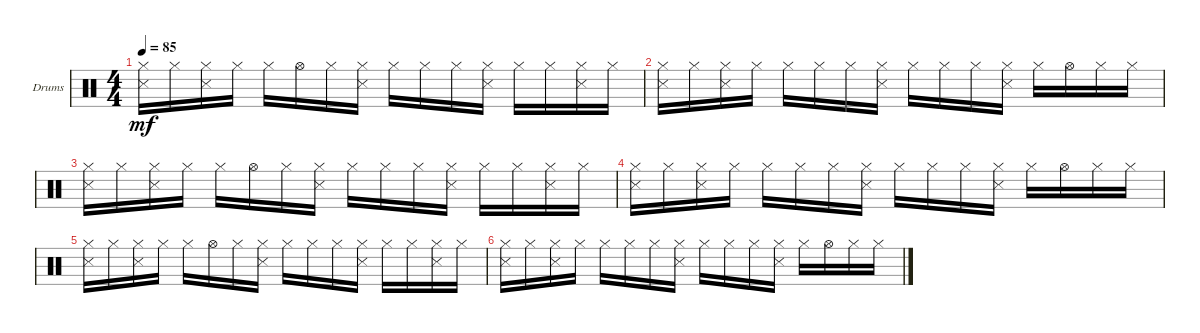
\defaultSystemsLayout 4
\bracketExtendMode groupsimilarinstruments
\firstSystemTrackNameOrientation horizontal
\otherSystemsTrackNameOrientation horizontal
\track ("Drumkit" "Drums") {instrument percussion}
\staff {score}
\articulation defaults
\ts (4 4)
\tempo 85
\clef neutral
\ks c
("Hi-Hat (closed)" "Snare (side stick) 3").16{dy mf} "Hi-Hat (closed)".16 ("Hi-Hat (closed)" "Snare (side stick) 3").16 "Hi-Hat (closed)".16 "Hi-Hat (closed)".16 "Hi-Hat (open)".16 "Hi-Hat (closed)".16 ("Hi-Hat (closed)" "Snare (side stick) 3").16 "Hi-Hat (closed)".16 "Hi-Hat (closed)".16 "Hi-Hat (closed)".16 ("Hi-Hat (closed)" "Snare (side stick) 3").16 "Hi-Hat (closed)".16 "Hi-Hat (closed)".16 ("Hi-Hat (closed)" "Snare (side stick) 3").16 "Hi-Hat (closed)".16 |
("Hi-Hat (closed)" "Snare (side stick) 3").16 "Hi-Hat (closed)".16 ("Hi-Hat (closed)" "Snare (side stick) 3").16 "Hi-Hat (closed)".16 "Hi-Hat (closed)".16 "Hi-Hat (closed)".16 "Hi-Hat (closed)".16 ("Hi-Hat (closed)" "Snare (side stick) 3").16 "Hi-Hat (closed)".16 "Hi-Hat (closed)".16 "Hi-Hat (closed)".16 ("Hi-Hat (closed)" "Snare (side stick) 3").16 "Hi-Hat (closed)".16 "Hi-Hat (open)".16 "Hi-Hat (closed)".16 "Hi-Hat (closed)".16 |
("Hi-Hat (closed)" "Snare (side stick) 3").16 "Hi-Hat (closed)".16 ("Hi-Hat (closed)" "Snare (side stick) 3").16 "Hi-Hat (closed)".16 "Hi-Hat (closed)".16 "Hi-Hat (open)".16 "Hi-Hat (closed)".16 ("Hi-Hat (closed)" "Snare (side stick) 3").16 "Hi-Hat (closed)".16 "Hi-Hat (closed)".16 "Hi-Hat (closed)".16 ("Hi-Hat (closed)" "Snare (side stick) 3").16 "Hi-Hat (closed)".16 "Hi-Hat (closed)".16 ("Hi-Hat (closed)" "Snare (side stick) 3").16 "Hi-Hat (closed)".16 |
("Hi-Hat (closed)" "Snare (side stick) 3").16 "Hi-Hat (closed)".16 ("Hi-Hat (closed)" "Snare (side stick) 3").16 "Hi-Hat (closed)".16 "Hi-Hat (closed)".16 "Hi-Hat (closed)".16 "Hi-Hat (closed)".16 ("Hi-Hat (closed)" "Snare (side stick) 3").16 "Hi-Hat (closed)".16 "Hi-Hat (closed)".16 "Hi-Hat (closed)".16 ("Hi-Hat (closed)" "Snare (side stick) 3").16 "Hi-Hat (closed)".16 "Hi-Hat (open)".16 "Hi-Hat (closed)".16 "Hi-Hat (closed)".16 |
("Hi-Hat (closed)" "Snare (side stick) 3").16 "Hi-Hat (closed)".16 ("Hi-Hat (closed)" "Snare (side stick) 3").16 "Hi-Hat (closed)".16 "Hi-Hat (closed)".16 "Hi-Hat (open)".16 "Hi-Hat (closed)".16 ("Hi-Hat (closed)" "Snare (side stick) 3").16 "Hi-Hat (closed)".16 "Hi-Hat (closed)".16 "Hi-Hat (closed)".16 ("Hi-Hat (closed)" "Snare (side stick) 3").16 "Hi-Hat (closed)".16 "Hi-Hat (closed)".16 ("Hi-Hat (closed)" "Snare (side stick) 3").16 "Hi-Hat (closed)".16 |
("Hi-Hat (closed)" "Snare (side stick) 3").16 "Hi-Hat (closed)".16 ("Hi-Hat (closed)" "Snare (side stick) 3").16 "Hi-Hat (closed)".16 "Hi-Hat (closed)".16 "Hi-Hat (closed)".16 "Hi-Hat (closed)".16 ("Hi-Hat (closed)" "Snare (side stick) 3").16 "Hi-Hat (closed)".16 "Hi-Hat (closed)".16 "Hi-Hat (closed)".16 ("Hi-Hat (closed)" "Snare (side stick) 3").16 "Hi-Hat (closed)".16 "Hi-Hat (open)".16 "Hi-Hat (closed)".16 "Hi-Hat (closed)".16
